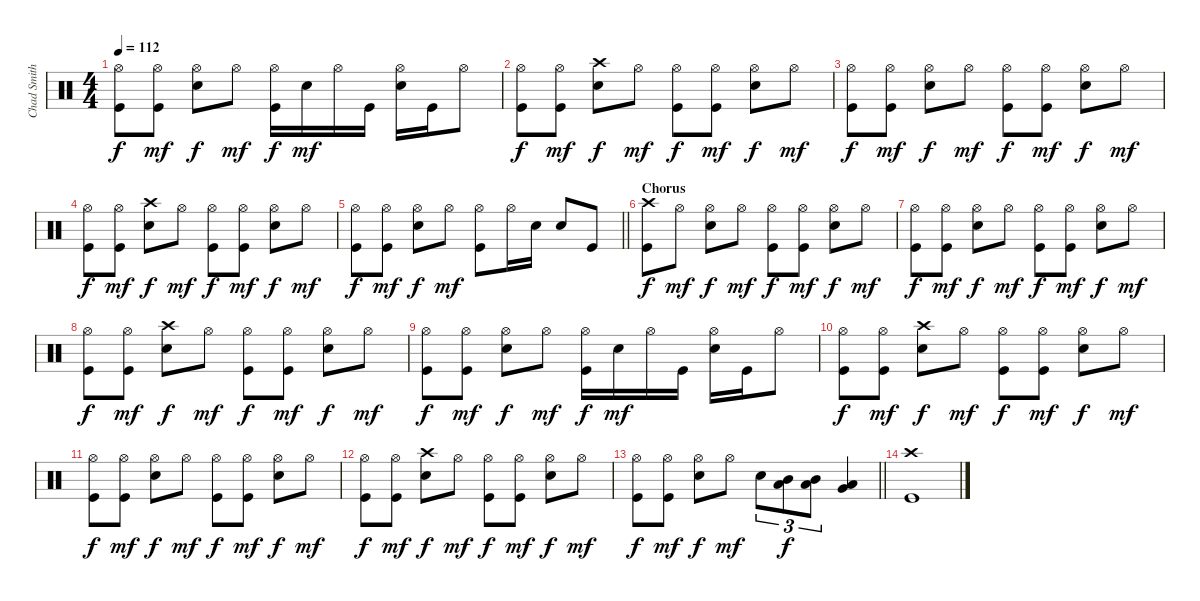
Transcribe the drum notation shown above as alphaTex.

\track ("Chad Smith" "Chad Smith") {instrument percussion}
\staff {score}
\articulation defaults
\ts (4 4)
\tempo 112
\clef neutral
\ks c
("Hi-Hat (open)" "Kick (hit)").8{dy f} ("Hi-Hat (open)" "Kick (hit)").8{dy mf} ("Hi-Hat (open)" "Snare (hit) 2").8{dy f} "Hi-Hat (open)".8{dy mf} ("Kick (hit)" "Hi-Hat (open)").16{dy f} "Snare (hit) 2".16{dy mf} "Hi-Hat (open)".16 "Kick (hit)".16 ("Hi-Hat (open)" "Snare (hit) 2").16 "Kick (hit)".16 "Hi-Hat (open)".8 |
("Hi-Hat (open)" "Kick (hit)").8{dy f} ("Hi-Hat (open)" "Kick (hit)").8{dy mf} ("Crash high (hit)" "Snare (hit) 2").8{dy f} "Hi-Hat (open)".8{dy mf} ("Kick (hit)" "Hi-Hat (open)").8{dy f} ("Kick (hit)" "Hi-Hat (open)").8{dy mf} ("Snare (hit) 2" "Hi-Hat (open)").8{dy f} "Hi-Hat (open)".8{dy mf} |
("Hi-Hat (open)" "Kick (hit)").8{dy f} ("Hi-Hat (open)" "Kick (hit)").8{dy mf} ("Hi-Hat (open)" "Snare (hit) 2").8{dy f} "Hi-Hat (open)".8{dy mf} ("Kick (hit)" "Hi-Hat (open)").8{dy f} ("Kick (hit)" "Hi-Hat (open)").8{dy mf} ("Snare (hit) 2" "Hi-Hat (open)").8{dy f} "Hi-Hat (open)".8{dy mf} |
("Hi-Hat (open)" "Kick (hit)").8{dy f} ("Hi-Hat (open)" "Kick (hit)").8{dy mf} ("Crash high (hit)" "Snare (hit) 2").8{dy f} "Hi-Hat (open)".8{dy mf} ("Kick (hit)" "Hi-Hat (open)").8{dy f} ("Kick (hit)" "Hi-Hat (open)").8{dy mf} ("Snare (hit) 2" "Hi-Hat (open)").8{dy f} "Hi-Hat (open)".8{dy mf} |
\barLineRight lightlight
("Hi-Hat (open)" "Kick (hit)").8{dy f} ("Hi-Hat (open)" "Kick (hit)").8{dy mf} ("Hi-Hat (open)" "Snare (hit) 2").8{dy f} "Hi-Hat (open)".8{dy mf} ("Hi-Hat (open)" "Kick (hit)").8 "Hi-Hat (open)".16 "Snare (hit) 2".16 "Snare (hit) 2".8 "Kick (hit)".8 |
\section ("" "Chorus")
("Crash high (hit)" "Kick (hit)").8{dy f} "Hi-Hat (open)".8{dy mf} ("Hi-Hat (open)" "Snare (hit) 2").8{dy f} "Hi-Hat (open)".8{dy mf} ("Kick (hit)" "Hi-Hat (open)").8{dy f} ("Kick (hit)" "Hi-Hat (open)").8{dy mf} ("Snare (hit) 2" "Hi-Hat (open)").8{dy f} "Hi-Hat (open)".8{dy mf} |
("Hi-Hat (open)" "Kick (hit)").8{dy f} ("Hi-Hat (open)" "Kick (hit)").8{dy mf} ("Hi-Hat (open)" "Snare (hit) 2").8{dy f} "Hi-Hat (open)".8{dy mf} ("Kick (hit)" "Hi-Hat (open)").8{dy f} ("Kick (hit)" "Hi-Hat (open)").8{dy mf} ("Snare (hit) 2" "Hi-Hat (open)").8{dy f} "Hi-Hat (open)".8{dy mf} |
("Hi-Hat (open)" "Kick (hit)").8{dy f} ("Hi-Hat (open)" "Kick (hit)").8{dy mf} ("Crash high (hit)" "Snare (hit) 2").8{dy f} "Hi-Hat (open)".8{dy mf} ("Kick (hit)" "Hi-Hat (open)").8{dy f} ("Kick (hit)" "Hi-Hat (open)").8{dy mf} ("Snare (hit) 2" "Hi-Hat (open)").8{dy f} "Hi-Hat (open)".8{dy mf} |
("Hi-Hat (open)" "Kick (hit)").8{dy f} ("Hi-Hat (open)" "Kick (hit)").8{dy mf} ("Hi-Hat (open)" "Snare (hit) 2").8{dy f} "Hi-Hat (open)".8{dy mf} ("Kick (hit)" "Hi-Hat (open)").16{dy f} "Snare (hit) 2".16{dy mf} "Hi-Hat (open)".16 "Kick (hit)".16 ("Hi-Hat (open)" "Snare (hit) 2").16 "Kick (hit)".16 "Hi-Hat (open)".8 |
("Hi-Hat (open)" "Kick (hit)").8{dy f} ("Hi-Hat (open)" "Kick (hit)").8{dy mf} ("Crash high (hit)" "Snare (hit) 2").8{dy f} "Hi-Hat (open)".8{dy mf} ("Kick (hit)" "Hi-Hat (open)").8{dy f} ("Kick (hit)" "Hi-Hat (open)").8{dy mf} ("Snare (hit) 2" "Hi-Hat (open)").8{dy f} "Hi-Hat (open)".8{dy mf} |
("Hi-Hat (open)" "Kick (hit)").8{dy f} ("Hi-Hat (open)" "Kick (hit)").8{dy mf} ("Hi-Hat (open)" "Snare (hit) 2").8{dy f} "Hi-Hat (open)".8{dy mf} ("Kick (hit)" "Hi-Hat (open)").8{dy f} ("Kick (hit)" "Hi-Hat (open)").8{dy mf} ("Snare (hit) 2" "Hi-Hat (open)").8{dy f} "Hi-Hat (open)".8{dy mf} |
("Hi-Hat (open)" "Kick (hit)").8{dy f} ("Hi-Hat (open)" "Kick (hit)").8{dy mf} ("Crash high (hit)" "Snare (hit) 2").8{dy f} "Hi-Hat (open)".8{dy mf} ("Kick (hit)" "Hi-Hat (open)").8{dy f} ("Kick (hit)" "Hi-Hat (open)").8{dy mf} ("Snare (hit) 2" "Hi-Hat (open)").8{dy f} "Hi-Hat (open)".8{dy mf} |
\barLineRight lightlight
("Hi-Hat (open)" "Kick (hit)").8{dy f} ("Hi-Hat (open)" "Kick (hit)").8{dy mf} ("Hi-Hat (open)" "Snare (hit) 2").8{dy f} "Hi-Hat (open)".8{dy mf} "Snare (hit) 2".8{tu (3 2)} ("Mid Tom (hit)" "Low Tom (hit)").8{tu (3 2) dy f} ("Mid Tom (hit)" "Low Tom (hit)").8{tu (3 2)} ("Low Floor Tom (hit)" "Very Low Tom (hit)").4 |
("Crash high (hit)" "Kick (hit)").1
